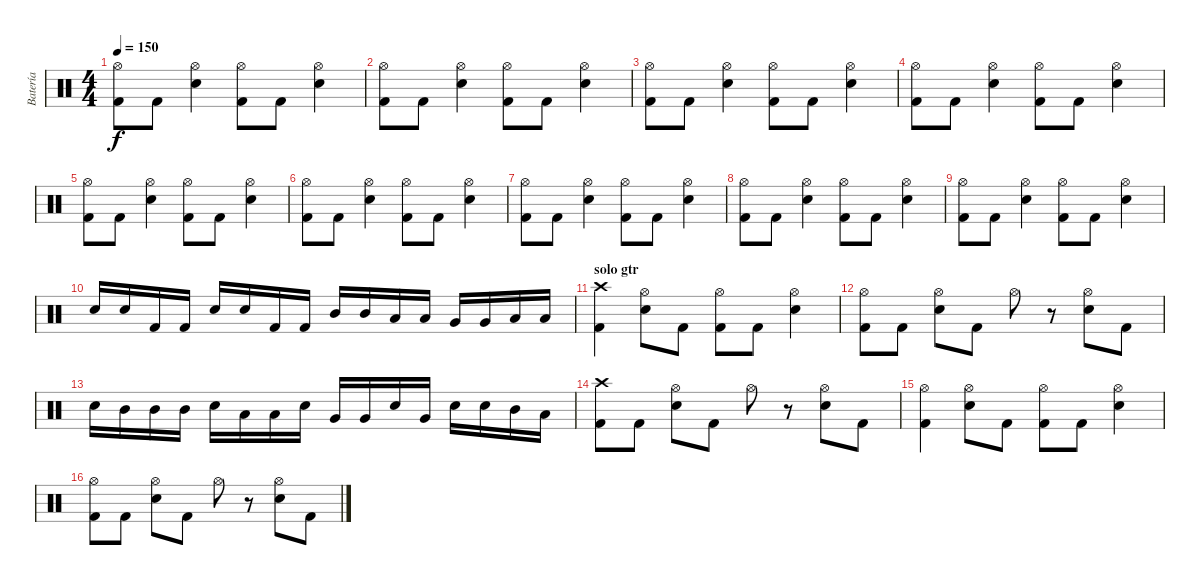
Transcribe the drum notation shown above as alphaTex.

\track ("Batería" "Batería") {instrument percussion}
\staff {score}
\articulation defaults
\ts (4 4)
\tempo 150
\clef neutral
\ks c
("Hi-Hat (open)" "Kick (hit) 2").8{dy f} "Kick (hit) 2".8 ("Hi-Hat (open)" "Electric Snare (hit)").4 ("Kick (hit) 2" "Hi-Hat (open)").8 "Kick (hit) 2".8 ("Hi-Hat (open)" "Electric Snare (hit)").4 |
("Hi-Hat (open)" "Kick (hit) 2").8 "Kick (hit) 2".8 ("Hi-Hat (open)" "Electric Snare (hit)").4 ("Kick (hit) 2" "Hi-Hat (open)").8 "Kick (hit) 2".8 ("Hi-Hat (open)" "Electric Snare (hit)").4 |
("Hi-Hat (open)" "Kick (hit) 2").8 "Kick (hit) 2".8 ("Hi-Hat (open)" "Electric Snare (hit)").4 ("Kick (hit) 2" "Hi-Hat (open)").8 "Kick (hit) 2".8 ("Hi-Hat (open)" "Electric Snare (hit)").4 |
("Hi-Hat (open)" "Kick (hit) 2").8 "Kick (hit) 2".8 ("Hi-Hat (open)" "Electric Snare (hit)").4 ("Kick (hit) 2" "Hi-Hat (open)").8 "Kick (hit) 2".8 ("Hi-Hat (open)" "Electric Snare (hit)").4 |
("Hi-Hat (open)" "Kick (hit) 2").8 "Kick (hit) 2".8 ("Hi-Hat (open)" "Electric Snare (hit)").4 ("Kick (hit) 2" "Hi-Hat (open)").8 "Kick (hit) 2".8 ("Hi-Hat (open)" "Electric Snare (hit)").4 |
("Hi-Hat (open)" "Kick (hit) 2").8 "Kick (hit) 2".8 ("Hi-Hat (open)" "Electric Snare (hit)").4 ("Kick (hit) 2" "Hi-Hat (open)").8 "Kick (hit) 2".8 ("Hi-Hat (open)" "Electric Snare (hit)").4 |
("Hi-Hat (open)" "Kick (hit) 2").8 "Kick (hit) 2".8 ("Hi-Hat (open)" "Electric Snare (hit)").4 ("Kick (hit) 2" "Hi-Hat (open)").8 "Kick (hit) 2".8 ("Hi-Hat (open)" "Electric Snare (hit)").4 |
("Hi-Hat (open)" "Kick (hit) 2").8 "Kick (hit) 2".8 ("Hi-Hat (open)" "Electric Snare (hit)").4 ("Kick (hit) 2" "Hi-Hat (open)").8 "Kick (hit) 2".8 ("Hi-Hat (open)" "Electric Snare (hit)").4 |
("Hi-Hat (open)" "Kick (hit) 2").8 "Kick (hit) 2".8 ("Hi-Hat (open)" "Electric Snare (hit)").4 ("Kick (hit) 2" "Hi-Hat (open)").8 "Kick (hit) 2".8 ("Hi-Hat (open)" "Electric Snare (hit)").4 |
"Electric Snare (hit)".16 "Electric Snare (hit)".16 "Kick (hit) 2".16 "Kick (hit) 2".16 "Electric Snare (hit)".16 "Electric Snare (hit)".16 "Kick (hit) 2".16 "Kick (hit) 2".16 "Mid Tom (hit)".16 "Mid Tom (hit)".16 "Low Tom (hit)".16 "Low Tom (hit)".16 "Very Low Tom (hit)".16 "Very Low Tom (hit)".16 "Low Floor Tom (hit)".16 "Low Floor Tom (hit)".16 |
\section ("" "solo gtr")
("Crash high (hit)" "Kick (hit) 2").4 ("Hi-Hat (open)" "Electric Snare (hit)").8 "Kick (hit) 2".8 ("Hi-Hat (open)" "Kick (hit) 2").8 "Kick (hit) 2".8 ("Hi-Hat (open)" "Electric Snare (hit)").4 |
("Hi-Hat (open)" "Kick (hit) 2").8 "Kick (hit) 2".8 ("Hi-Hat (open)" "Electric Snare (hit)").8 "Kick (hit) 2".8 "Hi-Hat (open)".8 r.8 ("Hi-Hat (open)" "Electric Snare (hit)").8 "Kick (hit) 2".8 |
"Electric Snare (hit)".16 "Mid Tom (hit)".16 "Mid Tom (hit)".16 "Mid Tom (hit)".16 "Electric Snare (hit)".16 "Low Tom (hit)".16 "Low Tom (hit)".16 "Electric Snare (hit)".16 "Very Low Tom (hit)".16 "Very Low Tom (hit)".16 "Electric Snare (hit)".16 "Very Low Tom (hit)".16 "Electric Snare (hit)".16 "Electric Snare (hit)".16 "Mid Tom (hit)".16 "Low Tom (hit)".16 |
("Crash high (hit)" "Kick (hit) 2").8 "Kick (hit) 2".8 ("Hi-Hat (open)" "Electric Snare (hit)").8 "Kick (hit) 2".8 "Hi-Hat (open)".8 r.8 ("Hi-Hat (open)" "Electric Snare (hit)").8 "Kick (hit) 2".8 |
("Hi-Hat (open)" "Kick (hit) 2").4 ("Hi-Hat (open)" "Electric Snare (hit)").8 "Kick (hit) 2".8 ("Hi-Hat (open)" "Kick (hit) 2").8 "Kick (hit) 2".8 ("Hi-Hat (open)" "Electric Snare (hit)").4 |
("Hi-Hat (open)" "Kick (hit) 2").8 "Kick (hit) 2".8 ("Hi-Hat (open)" "Electric Snare (hit)").8 "Kick (hit) 2".8 "Hi-Hat (open)".8 r.8 ("Hi-Hat (open)" "Electric Snare (hit)").8 "Kick (hit) 2".8
